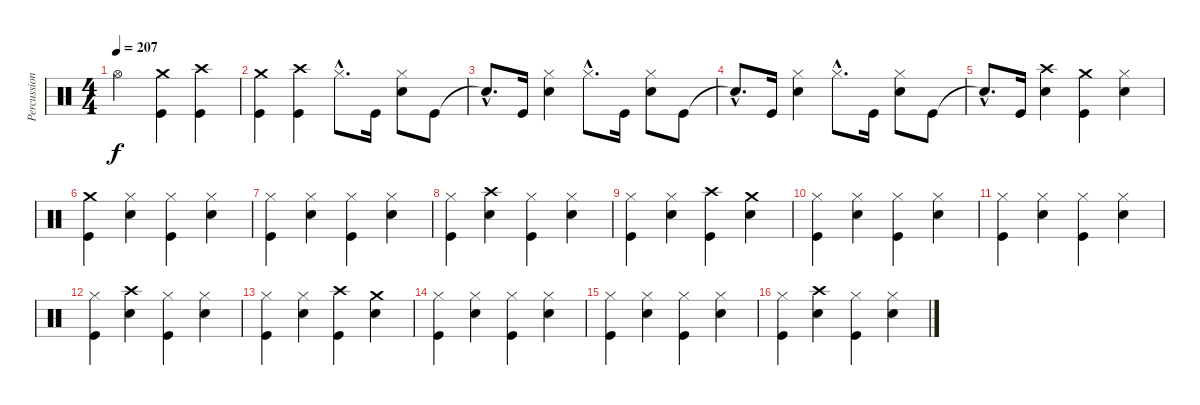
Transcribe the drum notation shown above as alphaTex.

\track ("Percussion" "Percussion") {instrument percussion}
\staff {score}
\articulation defaults
\ts (4 4)
\tempo 207
\clef neutral
\ks c "Hi-Hat (open)".2{dy f}
("Crash medium (hit)" "Kick (hit)").4 ("Crash high (hit)" "Kick (hit)").4 |
("Crash medium (hit)" "Kick (hit)").4 ("Crash high (hit)" "Kick (hit)").4 "Hi-Hat (closed)"{hac}.8{d} "Kick (hit)".16 ("Hi-Hat (closed)" "Electric Snare (hit)").8 "Kick (hit)".8 |
"Snare (hit)"{hac t}.8{d} "Kick (hit)".16 ("Hi-Hat (closed)" "Electric Snare (hit)").4 "Hi-Hat (closed)"{hac}.8{d} "Kick (hit)".16 ("Hi-Hat (closed)" "Electric Snare (hit)").8 "Kick (hit)".8 |
"Snare (hit)"{hac t}.8{d} "Kick (hit)".16 ("Hi-Hat (closed)" "Electric Snare (hit)").4 "Hi-Hat (closed)"{hac}.8{d} "Kick (hit)".16 ("Hi-Hat (closed)" "Electric Snare (hit)").8 "Kick (hit)".8 |
"Snare (hit)"{hac t}.8{d} "Kick (hit)".16 ("Crash high (hit)" "Electric Snare (hit)").4 ("Crash medium (hit)" "Kick (hit)").4 ("Hi-Hat (closed)" "Electric Snare (hit)").4 |
("Crash medium (hit)" "Kick (hit)").4 ("Hi-Hat (closed)" "Electric Snare (hit)").4 ("Hi-Hat (closed)" "Kick (hit)").4 ("Hi-Hat (closed)" "Electric Snare (hit)").4 |
("Hi-Hat (closed)" "Kick (hit)").4 ("Hi-Hat (closed)" "Electric Snare (hit)").4 ("Hi-Hat (closed)" "Kick (hit)").4 ("Hi-Hat (closed)" "Electric Snare (hit)").4 |
("Hi-Hat (closed)" "Kick (hit)").4 ("Crash high (hit)" "Electric Snare (hit)").4 ("Hi-Hat (closed)" "Kick (hit)").4 ("Hi-Hat (closed)" "Electric Snare (hit)").4 |
("Hi-Hat (closed)" "Kick (hit)").4 ("Hi-Hat (closed)" "Electric Snare (hit)").4 ("Crash high (hit)" "Kick (hit)").4 ("Crash medium (hit)" "Electric Snare (hit)").4 |
("Hi-Hat (closed)" "Kick (hit)").4 ("Hi-Hat (closed)" "Electric Snare (hit)").4 ("Hi-Hat (closed)" "Kick (hit)").4 ("Hi-Hat (closed)" "Electric Snare (hit)").4 |
("Hi-Hat (closed)" "Kick (hit)").4 ("Hi-Hat (closed)" "Electric Snare (hit)").4 ("Hi-Hat (closed)" "Kick (hit)").4 ("Hi-Hat (closed)" "Electric Snare (hit)").4 |
("Hi-Hat (closed)" "Kick (hit)").4 ("Crash high (hit)" "Electric Snare (hit)").4 ("Hi-Hat (closed)" "Kick (hit)").4 ("Hi-Hat (closed)" "Electric Snare (hit)").4 |
("Hi-Hat (closed)" "Kick (hit)").4 ("Hi-Hat (closed)" "Electric Snare (hit)").4 ("Crash high (hit)" "Kick (hit)").4 ("Crash medium (hit)" "Electric Snare (hit)").4 |
("Hi-Hat (closed)" "Kick (hit)").4 ("Hi-Hat (closed)" "Electric Snare (hit)").4 ("Hi-Hat (closed)" "Kick (hit)").4 ("Hi-Hat (closed)" "Electric Snare (hit)").4 |
("Hi-Hat (closed)" "Kick (hit)").4 ("Hi-Hat (closed)" "Electric Snare (hit)").4 ("Hi-Hat (closed)" "Kick (hit)").4 ("Hi-Hat (closed)" "Electric Snare (hit)").4 |
("Hi-Hat (closed)" "Kick (hit)").4 ("Crash high (hit)" "Electric Snare (hit)").4 ("Hi-Hat (closed)" "Kick (hit)").4 ("Hi-Hat (closed)" "Electric Snare (hit)").4
